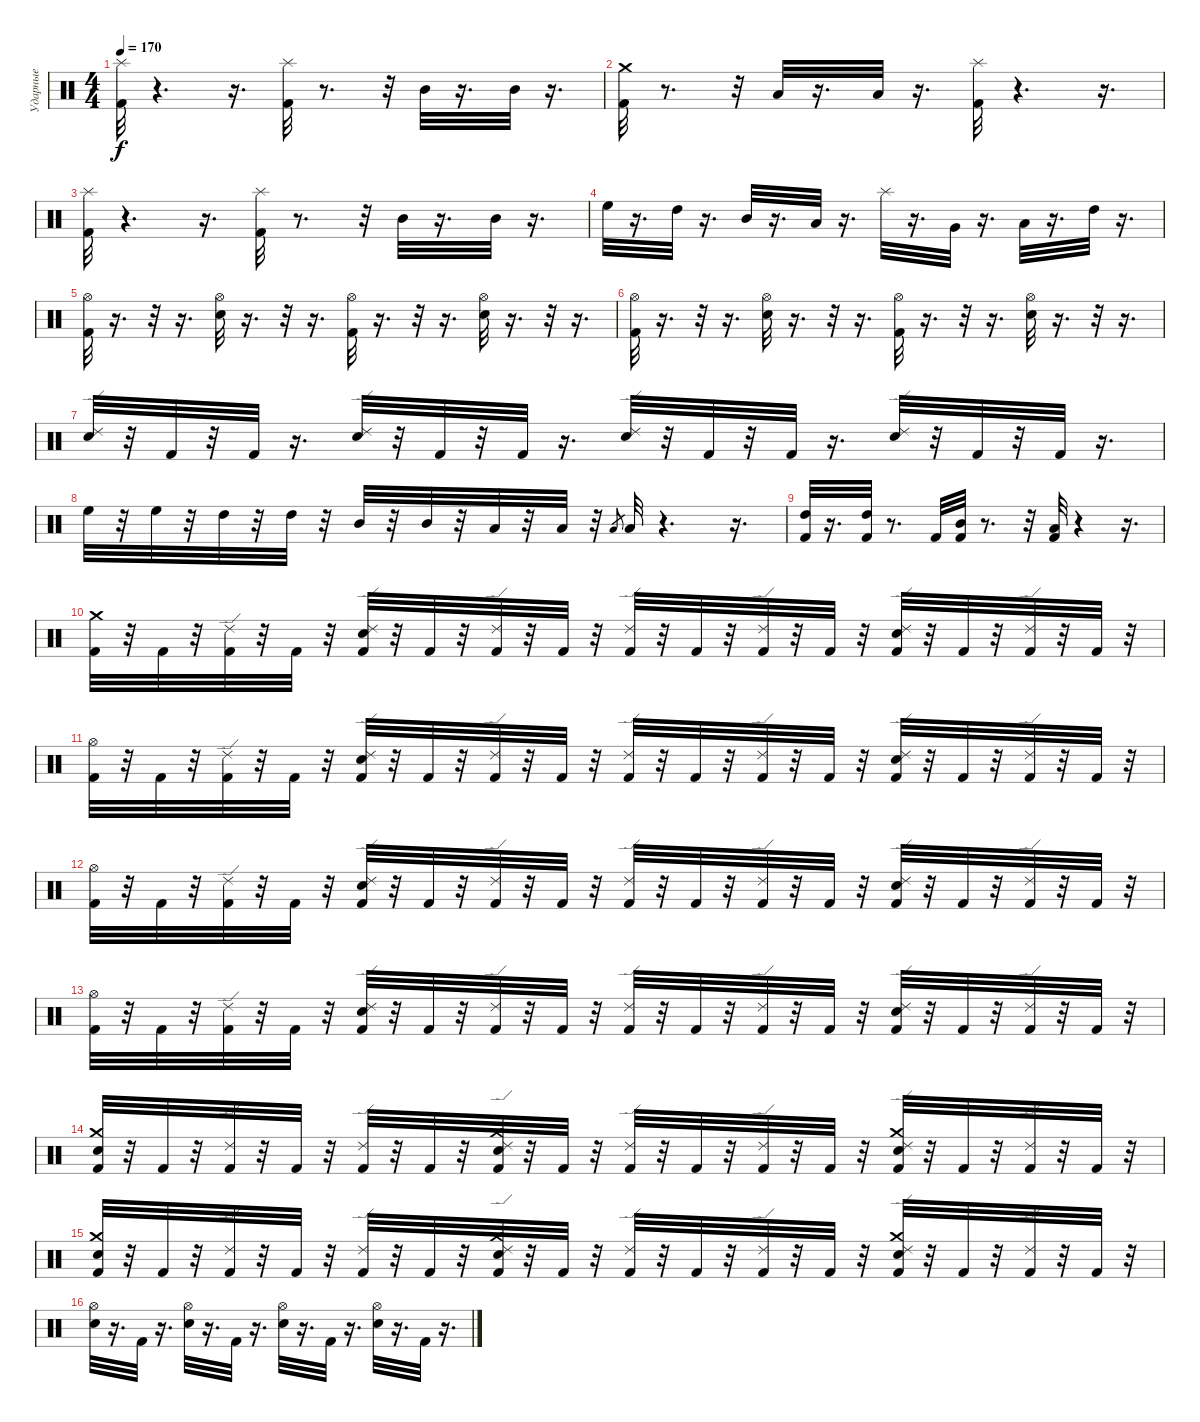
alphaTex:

\track ("Ударные" "Ударные") {instrument percussion}
\staff {score}
\articulation defaults
\ts (4 4)
\tempo 170
\clef neutral
\ks c
("Splash (hit)" "Kick (hit) 2").32{dy f} r.4{d} r.16{d} ("Splash (hit)" "Kick (hit) 2").32 r.8{d} r.32 "Mid Tom (hit)".32 r.16{d} "Mid Tom (hit)".32 r.16{d} |
("Crash medium (hit)" "Kick (hit) 2").32 r.8{d} r.32 "Low Tom (hit)".32 r.16{d} "Low Tom (hit)".32 r.16{d} ("Splash (hit)" "Kick (hit) 2").32 r.4{d} r.16{d} |
("Splash (hit)" "Kick (hit) 2").32 r.4{d} r.16{d} ("Splash (hit)" "Kick (hit) 2").32 r.8{d} r.32 "Mid Tom (hit)".32 r.16{d} "Mid Tom (hit)".32 r.16{d} |
"High Floor Tom (hit)".32 r.16{d} "High Tom (hit)".32 r.16{d} "Mid Tom (hit)".32 r.16{d} "Low Tom (hit)".32 r.16{d} "Splash (hit)".32 r.16{d} "Very Low Tom (hit)".32 r.16{d} "Low Tom (hit)".32 r.16{d} "High Tom (hit)".32 r.16{d} |
("Hi-Hat (open)" "Kick (hit) 2").32 r.16{d} r.32 r.16{d} ("Hi-Hat (open)" "Snare (hit) 2").32 r.16{d} r.32 r.16{d} ("Hi-Hat (open)" "Kick (hit) 2").32 r.16{d} r.32 r.16{d} ("Hi-Hat (open)" "Snare (hit) 2").32 r.16{d} r.32 r.16{d} |
("Hi-Hat (open)" "Kick (hit) 2").32 r.16{d} r.32 r.16{d} ("Hi-Hat (open)" "Snare (hit) 2").32 r.16{d} r.32 r.16{d} ("Hi-Hat (open)" "Kick (hit) 2").32 r.16{d} r.32 r.16{d} ("Hi-Hat (open)" "Snare (hit) 2").32 r.16{d} r.32 r.16{d} |
("Electric Snare (hit)" "Ride (edge) 2").32 r.32 "Kick (hit) 2".32 r.32 "Kick (hit) 2".32 r.16{d} ("Electric Snare (hit)" "Ride (edge) 2").32 r.32 "Kick (hit) 2".32 r.32 "Kick (hit) 2".32 r.16{d} ("Electric Snare (hit)" "Ride (edge) 2").32 r.32 "Kick (hit) 2".32 r.32 "Kick (hit) 2".32 r.16{d} ("Electric Snare (hit)" "Ride (edge) 2").32 r.32 "Kick (hit) 2".32 r.32 "Kick (hit) 2".32 r.16{d} |
"High Floor Tom (hit)".32 r.32 "High Floor Tom (hit)".32 r.32 "High Tom (hit)".32 r.32 "High Tom (hit)".32 r.32 "Mid Tom (hit)".32 r.32 "Mid Tom (hit)".32 r.32 "Low Tom (hit)".32 r.32 "Low Tom (hit)".32 r.32 "Low Tom (hit)".8{gr} "Low Tom (hit)".32 r.4{d} r.16{d} |
("High Tom (hit)" "Kick (hit) 2").32 r.16{d} ("High Tom (hit)" "Kick (hit) 2").32 r.8{d} "Kick (hit) 2".32 ("Mid Tom (hit)" "Kick (hit) 2").32 r.8{d} r.32 ("Low Tom (hit)" "Kick (hit) 2").32 r.4 r.16{d} |
("Crash medium (hit)" "Kick (hit) 2").32 r.32 "Kick (hit) 2".32 r.32 ("Ride (edge) 2" "Kick (hit) 2").32 r.32 "Kick (hit) 2".32 r.32 ("Ride (edge) 2" "Electric Snare (hit)" "Kick (hit) 2").32 r.32 "Kick (hit) 2".32 r.32 ("Ride (edge) 2" "Kick (hit) 2").32 r.32 "Kick (hit) 2".32 r.32 ("Ride (edge) 2" "Kick (hit) 2").32 r.32 "Kick (hit) 2".32 r.32 ("Ride (edge) 2" "Kick (hit) 2").32 r.32 "Kick (hit) 2".32 r.32 ("Ride (edge) 2" "Electric Snare (hit)" "Kick (hit) 2").32 r.32 "Kick (hit) 2".32 r.32 ("Ride (edge) 2" "Kick (hit) 2").32 r.32 "Kick (hit) 2".32 r.32 |
("Hi-Hat (open)" "Kick (hit) 2").32 r.32 "Kick (hit) 2".32 r.32 ("Ride (edge) 2" "Kick (hit) 2").32 r.32 "Kick (hit) 2".32 r.32 ("Ride (edge) 2" "Electric Snare (hit)" "Kick (hit) 2").32 r.32 "Kick (hit) 2".32 r.32 ("Ride (edge) 2" "Kick (hit) 2").32 r.32 "Kick (hit) 2".32 r.32 ("Ride (edge) 2" "Kick (hit) 2").32 r.32 "Kick (hit) 2".32 r.32 ("Ride (edge) 2" "Kick (hit) 2").32 r.32 "Kick (hit) 2".32 r.32 ("Ride (edge) 2" "Electric Snare (hit)" "Kick (hit) 2").32 r.32 "Kick (hit) 2".32 r.32 ("Ride (edge) 2" "Kick (hit) 2").32 r.32 "Kick (hit) 2".32 r.32 |
("Hi-Hat (open)" "Kick (hit) 2").32 r.32 "Kick (hit) 2".32 r.32 ("Ride (edge) 2" "Kick (hit) 2").32 r.32 "Kick (hit) 2".32 r.32 ("Ride (edge) 2" "Electric Snare (hit)" "Kick (hit) 2").32 r.32 "Kick (hit) 2".32 r.32 ("Ride (edge) 2" "Kick (hit) 2").32 r.32 "Kick (hit) 2".32 r.32 ("Ride (edge) 2" "Kick (hit) 2").32 r.32 "Kick (hit) 2".32 r.32 ("Ride (edge) 2" "Kick (hit) 2").32 r.32 "Kick (hit) 2".32 r.32 ("Ride (edge) 2" "Electric Snare (hit)" "Kick (hit) 2").32 r.32 "Kick (hit) 2".32 r.32 ("Ride (edge) 2" "Kick (hit) 2").32 r.32 "Kick (hit) 2".32 r.32 |
("Hi-Hat (open)" "Kick (hit) 2").32 r.32 "Kick (hit) 2".32 r.32 ("Ride (edge) 2" "Kick (hit) 2").32 r.32 "Kick (hit) 2".32 r.32 ("Ride (edge) 2" "Electric Snare (hit)" "Kick (hit) 2").32 r.32 "Kick (hit) 2".32 r.32 ("Ride (edge) 2" "Kick (hit) 2").32 r.32 "Kick (hit) 2".32 r.32 ("Ride (edge) 2" "Kick (hit) 2").32 r.32 "Kick (hit) 2".32 r.32 ("Ride (edge) 2" "Kick (hit) 2").32 r.32 "Kick (hit) 2".32 r.32 ("Ride (edge) 2" "Electric Snare (hit)" "Kick (hit) 2").32 r.32 "Kick (hit) 2".32 r.32 ("Ride (edge) 2" "Kick (hit) 2").32 r.32 "Kick (hit) 2".32 r.32 |
("Crash medium (hit)" "Electric Snare (hit)" "Kick (hit) 2").32 r.32 "Kick (hit) 2".32 r.32 ("Ride (edge) 2" "Kick (hit) 2").32 r.32 "Kick (hit) 2".32 r.32 ("Ride (edge) 2" "Kick (hit) 2").32 r.32 "Kick (hit) 2".32 r.32 ("Crash medium (hit)" "Ride (edge) 2" "Electric Snare (hit)" "Kick (hit) 2").32 r.32 "Kick (hit) 2".32 r.32 ("Ride (edge) 2" "Kick (hit) 2").32 r.32 "Kick (hit) 2".32 r.32 ("Ride (edge) 2" "Kick (hit) 2").32 r.32 "Kick (hit) 2".32 r.32 ("Crash medium (hit)" "Ride (edge) 2" "Electric Snare (hit)" "Kick (hit) 2").32 r.32 "Kick (hit) 2".32 r.32 ("Ride (edge) 2" "Kick (hit) 2").32 r.32 "Kick (hit) 2".32 r.32 |
("Crash medium (hit)" "Electric Snare (hit)" "Kick (hit) 2").32 r.32 "Kick (hit) 2".32 r.32 ("Ride (edge) 2" "Kick (hit) 2").32 r.32 "Kick (hit) 2".32 r.32 ("Ride (edge) 2" "Kick (hit) 2").32 r.32 "Kick (hit) 2".32 r.32 ("Crash medium (hit)" "Ride (edge) 2" "Electric Snare (hit)" "Kick (hit) 2").32 r.32 "Kick (hit) 2".32 r.32 ("Ride (edge) 2" "Kick (hit) 2").32 r.32 "Kick (hit) 2".32 r.32 ("Ride (edge) 2" "Kick (hit) 2").32 r.32 "Kick (hit) 2".32 r.32 ("Crash medium (hit)" "Ride (edge) 2" "Electric Snare (hit)" "Kick (hit) 2").32 r.32 "Kick (hit) 2".32 r.32 ("Ride (edge) 2" "Kick (hit) 2").32 r.32 "Kick (hit) 2".32 r.32 |
("Electric Snare (hit)" "Hi-Hat (open)").32 r.16{d} "Kick (hit) 2".32 r.16{d} ("Electric Snare (hit)" "Hi-Hat (open)").32 r.16{d} "Kick (hit) 2".32 r.16{d} ("Electric Snare (hit)" "Hi-Hat (open)").32 r.16{d} "Kick (hit) 2".32 r.16{d} ("Electric Snare (hit)" "Hi-Hat (open)").32 r.16{d} "Kick (hit) 2".32 r.16{d}
